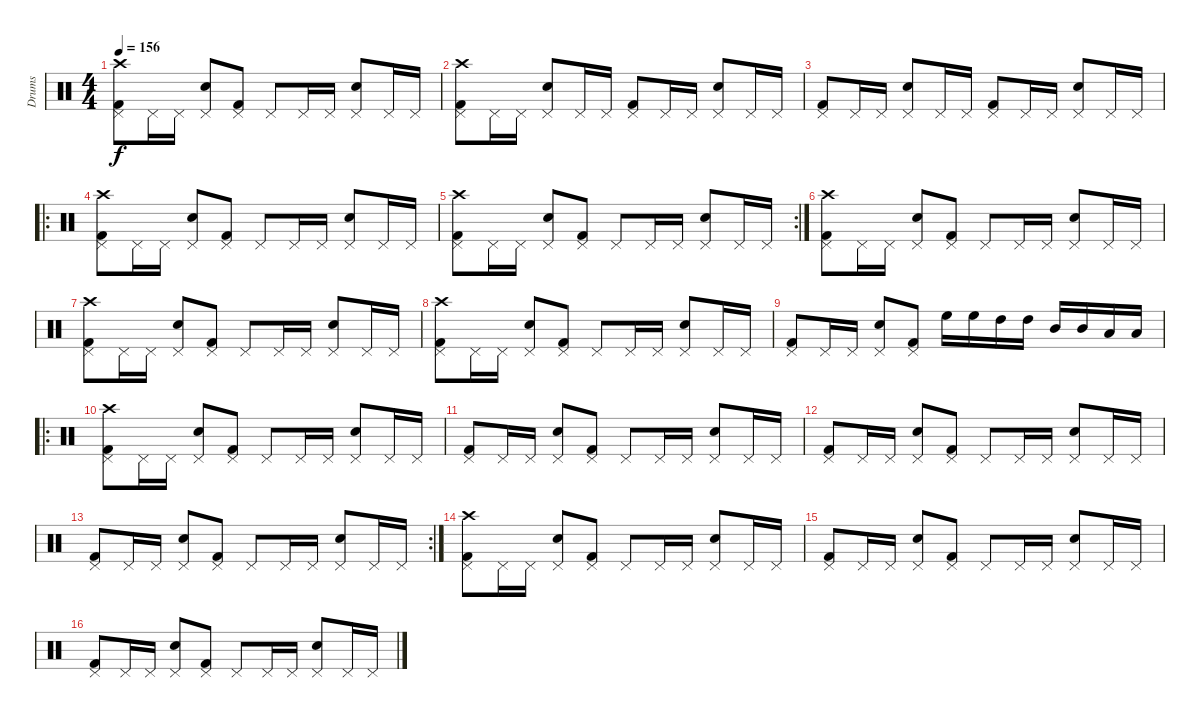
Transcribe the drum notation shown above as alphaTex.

\track ("Drums" "Drums") {instrument percussion}
\staff {score}
\articulation defaults
\ts (4 4)
\tempo 156
\clef neutral
\ks c
("Kick (hit) 2" "Pedal Hi-Hat (hit)" "Crash high (hit)").8{dy f} "Pedal Hi-Hat (hit)".16 "Pedal Hi-Hat (hit)".16 ("Snare (hit) 2" "Pedal Hi-Hat (hit)").8 ("Kick (hit) 2" "Pedal Hi-Hat (hit)").8 "Pedal Hi-Hat (hit)".8 "Pedal Hi-Hat (hit)".16 "Pedal Hi-Hat (hit)".16 ("Snare (hit) 2" "Pedal Hi-Hat (hit)").8 "Pedal Hi-Hat (hit)".16 "Pedal Hi-Hat (hit)".16 |
("Kick (hit) 2" "Pedal Hi-Hat (hit)" "Crash high (hit)").8 "Pedal Hi-Hat (hit)".16 "Pedal Hi-Hat (hit)".16 ("Snare (hit) 2" "Pedal Hi-Hat (hit)").8 "Pedal Hi-Hat (hit)".16 "Pedal Hi-Hat (hit)".16 ("Kick (hit) 2" "Pedal Hi-Hat (hit)").8 "Pedal Hi-Hat (hit)".16 "Pedal Hi-Hat (hit)".16 ("Snare (hit) 2" "Pedal Hi-Hat (hit)").8 "Pedal Hi-Hat (hit)".16 "Pedal Hi-Hat (hit)".16 |
("Kick (hit) 2" "Pedal Hi-Hat (hit)").8 "Pedal Hi-Hat (hit)".16 "Pedal Hi-Hat (hit)".16 ("Snare (hit) 2" "Pedal Hi-Hat (hit)").8 "Pedal Hi-Hat (hit)".16 "Pedal Hi-Hat (hit)".16 ("Kick (hit) 2" "Pedal Hi-Hat (hit)").8 "Pedal Hi-Hat (hit)".16 "Pedal Hi-Hat (hit)".16 ("Snare (hit) 2" "Pedal Hi-Hat (hit)").8 "Pedal Hi-Hat (hit)".16 "Pedal Hi-Hat (hit)".16 |
\ro
("Kick (hit) 2" "Pedal Hi-Hat (hit)" "Crash high (hit)").8 "Pedal Hi-Hat (hit)".16 "Pedal Hi-Hat (hit)".16 ("Snare (hit) 2" "Pedal Hi-Hat (hit)").8 ("Kick (hit) 2" "Pedal Hi-Hat (hit)").8 "Pedal Hi-Hat (hit)".8 "Pedal Hi-Hat (hit)".16 "Pedal Hi-Hat (hit)".16 ("Snare (hit) 2" "Pedal Hi-Hat (hit)").8 "Pedal Hi-Hat (hit)".16 "Pedal Hi-Hat (hit)".16 |
\rc 2
("Kick (hit) 2" "Pedal Hi-Hat (hit)" "Crash high (hit)").8 "Pedal Hi-Hat (hit)".16 "Pedal Hi-Hat (hit)".16 ("Snare (hit) 2" "Pedal Hi-Hat (hit)").8 ("Kick (hit) 2" "Pedal Hi-Hat (hit)").8 "Pedal Hi-Hat (hit)".8 "Pedal Hi-Hat (hit)".16 "Pedal Hi-Hat (hit)".16 ("Snare (hit) 2" "Pedal Hi-Hat (hit)").8 "Pedal Hi-Hat (hit)".16 "Pedal Hi-Hat (hit)".16 |
("Kick (hit) 2" "Pedal Hi-Hat (hit)" "Crash high (hit)").8 "Pedal Hi-Hat (hit)".16 "Pedal Hi-Hat (hit)".16 ("Snare (hit) 2" "Pedal Hi-Hat (hit)").8 ("Kick (hit) 2" "Pedal Hi-Hat (hit)").8 "Pedal Hi-Hat (hit)".8 "Pedal Hi-Hat (hit)".16 "Pedal Hi-Hat (hit)".16 ("Snare (hit) 2" "Pedal Hi-Hat (hit)").8 "Pedal Hi-Hat (hit)".16 "Pedal Hi-Hat (hit)".16 |
("Kick (hit) 2" "Pedal Hi-Hat (hit)" "Crash high (hit)").8 "Pedal Hi-Hat (hit)".16 "Pedal Hi-Hat (hit)".16 ("Snare (hit) 2" "Pedal Hi-Hat (hit)").8 ("Kick (hit) 2" "Pedal Hi-Hat (hit)").8 "Pedal Hi-Hat (hit)".8 "Pedal Hi-Hat (hit)".16 "Pedal Hi-Hat (hit)".16 ("Snare (hit) 2" "Pedal Hi-Hat (hit)").8 "Pedal Hi-Hat (hit)".16 "Pedal Hi-Hat (hit)".16 |
("Kick (hit) 2" "Pedal Hi-Hat (hit)" "Crash high (hit)").8 "Pedal Hi-Hat (hit)".16 "Pedal Hi-Hat (hit)".16 ("Snare (hit) 2" "Pedal Hi-Hat (hit)").8 ("Kick (hit) 2" "Pedal Hi-Hat (hit)").8 "Pedal Hi-Hat (hit)".8 "Pedal Hi-Hat (hit)".16 "Pedal Hi-Hat (hit)".16 ("Snare (hit) 2" "Pedal Hi-Hat (hit)").8 "Pedal Hi-Hat (hit)".16 "Pedal Hi-Hat (hit)".16 |
("Kick (hit) 2" "Pedal Hi-Hat (hit)").8 "Pedal Hi-Hat (hit)".16 "Pedal Hi-Hat (hit)".16 ("Snare (hit) 2" "Pedal Hi-Hat (hit)").8 ("Kick (hit) 2" "Pedal Hi-Hat (hit)").8 "High Floor Tom (hit)".16 "High Floor Tom (hit)".16 "High Tom (hit)".16 "High Tom (hit)".16 "Mid Tom (hit)".16 "Mid Tom (hit)".16 "Low Tom (hit)".16 "Low Tom (hit)".16 |
\ro
("Kick (hit) 2" "Pedal Hi-Hat (hit)" "Crash high (hit)").8 "Pedal Hi-Hat (hit)".16 "Pedal Hi-Hat (hit)".16 ("Snare (hit) 2" "Pedal Hi-Hat (hit)").8 ("Kick (hit) 2" "Pedal Hi-Hat (hit)").8 "Pedal Hi-Hat (hit)".8 "Pedal Hi-Hat (hit)".16 "Pedal Hi-Hat (hit)".16 ("Snare (hit) 2" "Pedal Hi-Hat (hit)").8 "Pedal Hi-Hat (hit)".16 "Pedal Hi-Hat (hit)".16 |
("Kick (hit) 2" "Pedal Hi-Hat (hit)").8 "Pedal Hi-Hat (hit)".16 "Pedal Hi-Hat (hit)".16 ("Snare (hit) 2" "Pedal Hi-Hat (hit)").8 ("Kick (hit) 2" "Pedal Hi-Hat (hit)").8 "Pedal Hi-Hat (hit)".8 "Pedal Hi-Hat (hit)".16 "Pedal Hi-Hat (hit)".16 ("Snare (hit) 2" "Pedal Hi-Hat (hit)").8 "Pedal Hi-Hat (hit)".16 "Pedal Hi-Hat (hit)".16 |
("Kick (hit) 2" "Pedal Hi-Hat (hit)").8 "Pedal Hi-Hat (hit)".16 "Pedal Hi-Hat (hit)".16 ("Snare (hit) 2" "Pedal Hi-Hat (hit)").8 ("Kick (hit) 2" "Pedal Hi-Hat (hit)").8 "Pedal Hi-Hat (hit)".8 "Pedal Hi-Hat (hit)".16 "Pedal Hi-Hat (hit)".16 ("Snare (hit) 2" "Pedal Hi-Hat (hit)").8 "Pedal Hi-Hat (hit)".16 "Pedal Hi-Hat (hit)".16 |
\rc 2
("Kick (hit) 2" "Pedal Hi-Hat (hit)").8 "Pedal Hi-Hat (hit)".16 "Pedal Hi-Hat (hit)".16 ("Snare (hit) 2" "Pedal Hi-Hat (hit)").8 ("Kick (hit) 2" "Pedal Hi-Hat (hit)").8 "Pedal Hi-Hat (hit)".8 "Pedal Hi-Hat (hit)".16 "Pedal Hi-Hat (hit)".16 ("Snare (hit) 2" "Pedal Hi-Hat (hit)").8 "Pedal Hi-Hat (hit)".16 "Pedal Hi-Hat (hit)".16 |
("Kick (hit) 2" "Pedal Hi-Hat (hit)" "Crash high (hit)").8 "Pedal Hi-Hat (hit)".16 "Pedal Hi-Hat (hit)".16 ("Snare (hit) 2" "Pedal Hi-Hat (hit)").8 ("Kick (hit) 2" "Pedal Hi-Hat (hit)").8 "Pedal Hi-Hat (hit)".8 "Pedal Hi-Hat (hit)".16 "Pedal Hi-Hat (hit)".16 ("Snare (hit) 2" "Pedal Hi-Hat (hit)").8 "Pedal Hi-Hat (hit)".16 "Pedal Hi-Hat (hit)".16 |
("Kick (hit) 2" "Pedal Hi-Hat (hit)").8 "Pedal Hi-Hat (hit)".16 "Pedal Hi-Hat (hit)".16 ("Snare (hit) 2" "Pedal Hi-Hat (hit)").8 ("Kick (hit) 2" "Pedal Hi-Hat (hit)").8 "Pedal Hi-Hat (hit)".8 "Pedal Hi-Hat (hit)".16 "Pedal Hi-Hat (hit)".16 ("Snare (hit) 2" "Pedal Hi-Hat (hit)").8 "Pedal Hi-Hat (hit)".16 "Pedal Hi-Hat (hit)".16 |
("Kick (hit) 2" "Pedal Hi-Hat (hit)").8 "Pedal Hi-Hat (hit)".16 "Pedal Hi-Hat (hit)".16 ("Snare (hit) 2" "Pedal Hi-Hat (hit)").8 ("Kick (hit) 2" "Pedal Hi-Hat (hit)").8 "Pedal Hi-Hat (hit)".8 "Pedal Hi-Hat (hit)".16 "Pedal Hi-Hat (hit)".16 ("Snare (hit) 2" "Pedal Hi-Hat (hit)").8 "Pedal Hi-Hat (hit)".16 "Pedal Hi-Hat (hit)".16
